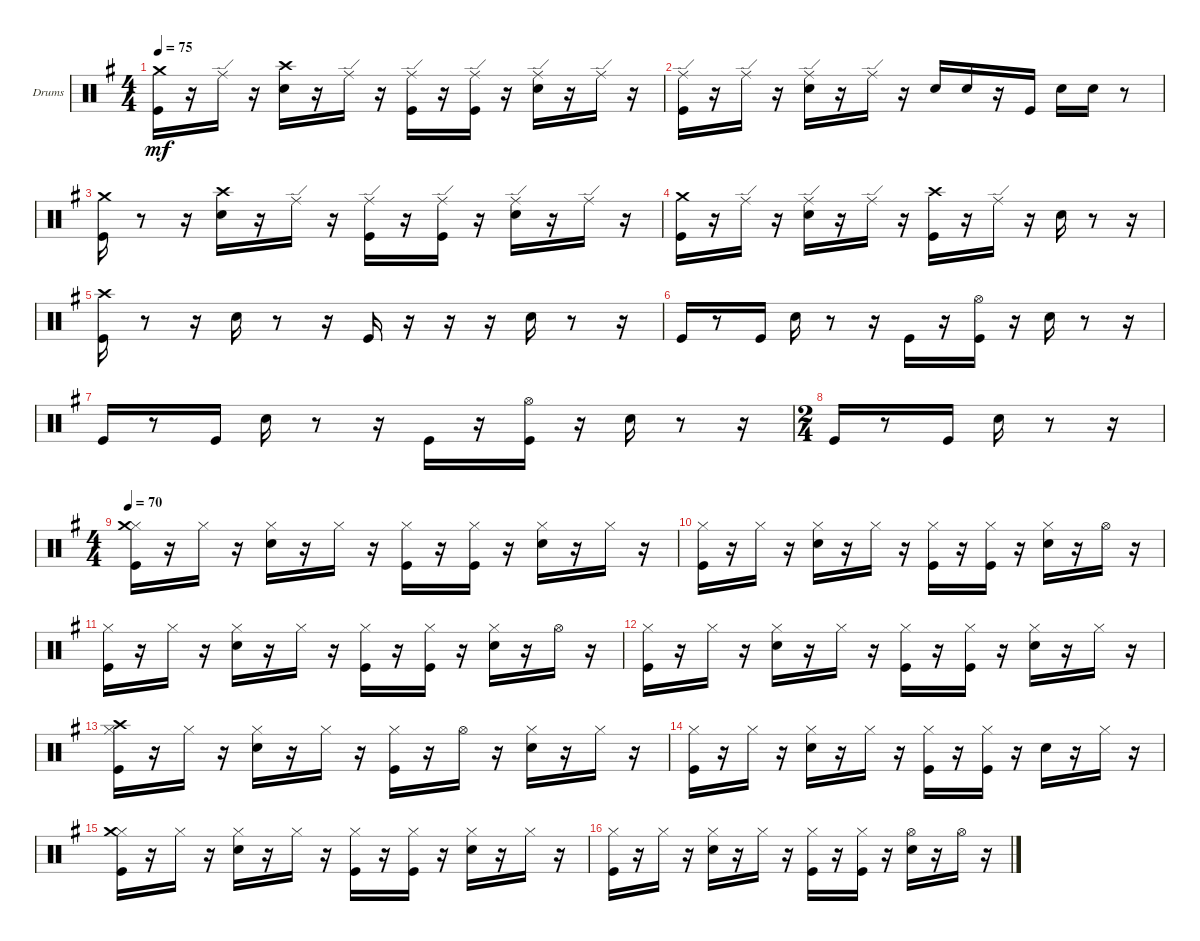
\bracketExtendMode groupsimilarinstruments
\firstSystemTrackNameOrientation horizontal
\otherSystemsTrackNameOrientation horizontal
\track ("Drumkit" "Drums") {instrument percussion}
\staff {score}
\articulation defaults
\ts (4 4)
\tempo 75
\clef neutral
\ks eminor
("Kick (hit)" "Crash medium (hit)").16{dy mf} r.16 "Ride (edge)".16 r.16 ("Snare (hit) 2" "Crash high (hit)").16 r.16 "Ride (edge)".16 r.16 ("Kick (hit)" "Ride (edge)").16 r.16 ("Kick (hit)" "Ride (edge)").16 r.16 ("Snare (hit) 2" "Ride (edge)").16 r.16 "Ride (edge)".16 r.16 |
("Kick (hit)" "Ride (edge)").16 r.16 "Ride (edge)".16 r.16 ("Snare (hit) 2" "Ride (edge)").16 r.16 "Ride (edge)".16 r.16 "Snare (hit) 2".16 "Snare (hit) 2".16 r.16 "Kick (hit)".16 "Snare (hit) 2".16 "Snare (hit) 2".16 r.8 |
("Kick (hit)" "Crash medium (hit)").16 r.8 r.16 ("Snare (hit) 2" "Crash high (hit)").16 r.16 "Ride (edge)".16 r.16 ("Kick (hit)" "Ride (edge)").16 r.16 ("Kick (hit)" "Ride (edge)").16 r.16 ("Snare (hit) 2" "Ride (edge)").16 r.16 "Ride (edge)".16 r.16 |
("Kick (hit)" "Crash medium (hit)").16 r.16 "Ride (edge)".16 r.16 ("Snare (hit) 2" "Ride (edge)").16 r.16 "Ride (edge)".16 r.16 ("Kick (hit)" "Crash high (hit)").16 r.16 "Ride (edge)".16 r.16 "Snare (hit) 2".16 r.8 r.16 |
("Kick (hit)" "Crash high (hit)").16 r.8 r.16 "Snare (hit) 2".16 r.8 r.16 "Kick (hit)".16 r.16 r.16 r.16 "Snare (hit) 2".16 r.8 r.16 |
"Kick (hit)".16 r.8 "Kick (hit)".16 "Snare (hit) 2".16 r.8 r.16 "Kick (hit)".16 r.16 ("Kick (hit)" "Hi-Hat (open)").16 r.16 "Snare (hit) 2".16 r.8 r.16 |
"Kick (hit)".16 r.8 "Kick (hit)".16 "Snare (hit) 2".16 r.8 r.16 "Kick (hit)".16 r.16 ("Kick (hit)" "Hi-Hat (open)").16 r.16 "Snare (hit) 2".16 r.8 r.16 |
\ts (2 4)
\beaming (8 2 2)
"Kick (hit)".16 r.8 "Kick (hit)".16 "Snare (hit) 2".16 r.8 r.16 |
\ts (4 4)
\beaming (8 2 2 2 2)
\tempo 70
("Kick (hit)" "Hi-Hat (closed)" "Crash medium (hit)").16 r.16 "Hi-Hat (closed)".16 r.16 ("Snare (hit) 2" "Hi-Hat (closed)").16 r.16 "Hi-Hat (closed)".16 r.16 ("Kick (hit)" "Hi-Hat (closed)").16 r.16 ("Kick (hit)" "Hi-Hat (closed)").16 r.16 ("Snare (hit) 2" "Hi-Hat (closed)").16 r.16 "Hi-Hat (closed)".16 r.16 |
("Kick (hit)" "Hi-Hat (closed)").16 r.16 "Hi-Hat (closed)".16 r.16 ("Snare (hit) 2" "Hi-Hat (closed)").16 r.16 "Hi-Hat (closed)".16 r.16 ("Kick (hit)" "Hi-Hat (closed)").16 r.16 ("Kick (hit)" "Hi-Hat (closed)").16 r.16 ("Snare (hit) 2" "Hi-Hat (closed)").16 r.16 "Hi-Hat (open)".16 r.16 |
("Kick (hit)" "Hi-Hat (closed)").16 r.16 "Hi-Hat (closed)".16 r.16 ("Snare (hit) 2" "Hi-Hat (closed)").16 r.16 "Hi-Hat (closed)".16 r.16 ("Kick (hit)" "Hi-Hat (closed)").16 r.16 ("Kick (hit)" "Hi-Hat (closed)").16 r.16 ("Snare (hit) 2" "Hi-Hat (closed)").16 r.16 "Hi-Hat (open)".16 r.16 |
("Kick (hit)" "Hi-Hat (closed)").16 r.16 "Hi-Hat (closed)".16 r.16 ("Snare (hit) 2" "Hi-Hat (closed)").16 r.16 "Hi-Hat (closed)".16 r.16 ("Kick (hit)" "Hi-Hat (closed)").16 r.16 ("Kick (hit)" "Hi-Hat (closed)").16 r.16 ("Snare (hit) 2" "Hi-Hat (closed)").16 r.16 "Hi-Hat (closed)".16 r.16 |
("Kick (hit)" "Hi-Hat (closed)" "Crash high (hit)").16 r.16 "Hi-Hat (closed)".16 r.16 ("Snare (hit) 2" "Hi-Hat (closed)").16 r.16 "Hi-Hat (closed)".16 r.16 ("Kick (hit)" "Hi-Hat (closed)").16 r.16 "Hi-Hat (open)".16 r.16 ("Snare (hit) 2" "Hi-Hat (closed)").16 r.16 "Hi-Hat (closed)".16 r.16 |
("Kick (hit)" "Hi-Hat (closed)").16 r.16 "Hi-Hat (closed)".16 r.16 ("Snare (hit) 2" "Hi-Hat (closed)").16 r.16 "Hi-Hat (closed)".16 r.16 ("Kick (hit)" "Hi-Hat (closed)").16 r.16 ("Kick (hit)" "Hi-Hat (closed)").16 r.16 "Snare (hit) 2".16 r.16 "Hi-Hat (closed)".16 r.16 |
("Kick (hit)" "Hi-Hat (closed)" "Crash medium (hit)").16 r.16 "Hi-Hat (closed)".16 r.16 ("Snare (hit) 2" "Hi-Hat (closed)").16 r.16 "Hi-Hat (closed)".16 r.16 ("Kick (hit)" "Hi-Hat (closed)").16 r.16 ("Kick (hit)" "Hi-Hat (closed)").16 r.16 ("Snare (hit) 2" "Hi-Hat (closed)").16 r.16 "Hi-Hat (closed)".16 r.16 |
("Kick (hit)" "Hi-Hat (closed)").16 r.16 "Hi-Hat (closed)".16 r.16 ("Snare (hit) 2" "Hi-Hat (closed)").16 r.16 "Hi-Hat (closed)".16 r.16 ("Kick (hit)" "Hi-Hat (closed)").16 r.16 ("Kick (hit)" "Hi-Hat (closed)").16 r.16 ("Snare (hit) 2" "Hi-Hat (open)").16 r.16 "Hi-Hat (open)".16 r.16
